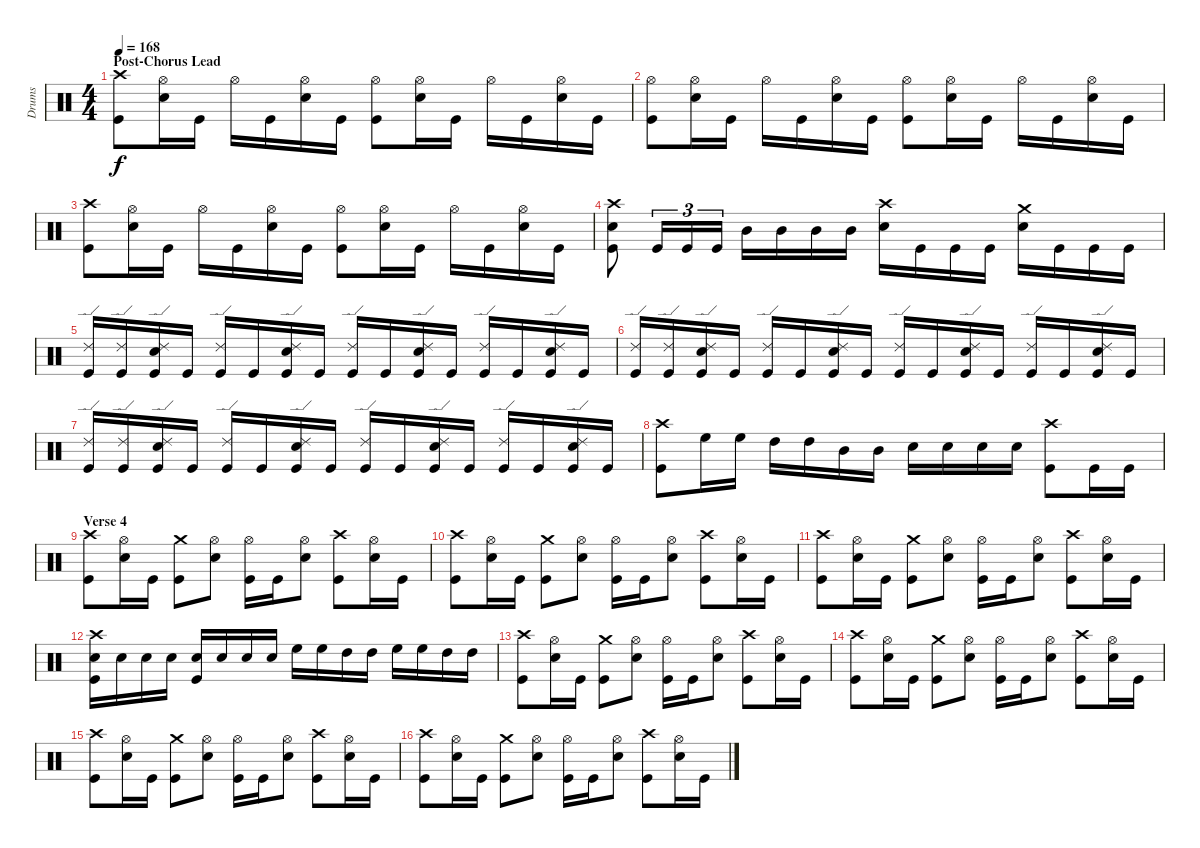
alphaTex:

\track ("Drums" "Drums") {instrument percussion}
\staff {score}
\articulation defaults
\ts (4 4)
\section ("" "Post-Chorus Lead")
\tempo 168
\clef neutral
\ks c
("Crash high (hit)" "Kick (hit)").8{dy f} ("Hi-Hat (open)" "Electric Snare (hit)").16 "Kick (hit)".16 "Hi-Hat (open)".16 "Kick (hit)".16 ("Hi-Hat (open)" "Electric Snare (hit)").16 "Kick (hit)".16 ("Hi-Hat (open)" "Kick (hit)").8 ("Hi-Hat (open)" "Electric Snare (hit)").16 "Kick (hit)".16 "Hi-Hat (open)".16 "Kick (hit)".16 ("Hi-Hat (open)" "Electric Snare (hit)").16 "Kick (hit)".16 |
("Hi-Hat (open)" "Kick (hit)").8 ("Hi-Hat (open)" "Electric Snare (hit)").16 "Kick (hit)".16 "Hi-Hat (open)".16 "Kick (hit)".16 ("Hi-Hat (open)" "Electric Snare (hit)").16 "Kick (hit)".16 ("Hi-Hat (open)" "Kick (hit)").8 ("Hi-Hat (open)" "Electric Snare (hit)").16 "Kick (hit)".16 "Hi-Hat (open)".16 "Kick (hit)".16 ("Hi-Hat (open)" "Electric Snare (hit)").16 "Kick (hit)".16 |
("Crash high (hit)" "Kick (hit)").8 ("Hi-Hat (open)" "Electric Snare (hit)").16 "Kick (hit)".16 "Hi-Hat (open)".16 "Kick (hit)".16 ("Hi-Hat (open)" "Electric Snare (hit)").16 "Kick (hit)".16 ("Hi-Hat (open)" "Kick (hit)").8 ("Hi-Hat (open)" "Electric Snare (hit)").16 "Kick (hit)".16 "Hi-Hat (open)".16 "Kick (hit)".16 ("Hi-Hat (open)" "Electric Snare (hit)").16 "Kick (hit)".16 |
("Crash high (hit)" "Electric Snare (hit)" "Kick (hit)").8 "Kick (hit)".16{tu (3 2)} "Kick (hit)".16{tu (3 2)} "Kick (hit)".16{tu (3 2)} "Mid Tom (hit)".16 "Mid Tom (hit)".16 "Mid Tom (hit)".16 "Mid Tom (hit)".16 ("Crash high (hit)" "Electric Snare (hit)").16 "Kick (hit)".16 "Kick (hit)".16 "Kick (hit)".16 ("Crash medium (hit)" "Electric Snare (hit)").16 "Kick (hit)".16 "Kick (hit)".16 "Kick (hit)".16 |
("Ride (edge) 2" "Kick (hit)").16 ("Ride (edge) 2" "Kick (hit)").16 ("Ride (edge) 2" "Electric Snare (hit)" "Kick (hit)").16 "Kick (hit)".16 ("Ride (edge) 2" "Kick (hit)").16 "Kick (hit)".16 ("Ride (edge) 2" "Electric Snare (hit)" "Kick (hit)").16 "Kick (hit)".16 ("Ride (edge) 2" "Kick (hit)").16 "Kick (hit)".16 ("Ride (edge) 2" "Electric Snare (hit)" "Kick (hit)").16 "Kick (hit)".16 ("Ride (edge) 2" "Kick (hit)").16 "Kick (hit)".16 ("Ride (edge) 2" "Electric Snare (hit)" "Kick (hit)").16 "Kick (hit)".16 |
("Ride (edge) 2" "Kick (hit)").16 ("Ride (edge) 2" "Kick (hit)").16 ("Ride (edge) 2" "Electric Snare (hit)" "Kick (hit)").16 "Kick (hit)".16 ("Ride (edge) 2" "Kick (hit)").16 "Kick (hit)".16 ("Ride (edge) 2" "Electric Snare (hit)" "Kick (hit)").16 "Kick (hit)".16 ("Ride (edge) 2" "Kick (hit)").16 "Kick (hit)".16 ("Ride (edge) 2" "Electric Snare (hit)" "Kick (hit)").16 "Kick (hit)".16 ("Ride (edge) 2" "Kick (hit)").16 "Kick (hit)".16 ("Ride (edge) 2" "Electric Snare (hit)" "Kick (hit)").16 "Kick (hit)".16 |
("Ride (edge) 2" "Kick (hit)").16 ("Ride (edge) 2" "Kick (hit)").16 ("Ride (edge) 2" "Electric Snare (hit)" "Kick (hit)").16 "Kick (hit)".16 ("Ride (edge) 2" "Kick (hit)").16 "Kick (hit)".16 ("Ride (edge) 2" "Electric Snare (hit)" "Kick (hit)").16 "Kick (hit)".16 ("Ride (edge) 2" "Kick (hit)").16 "Kick (hit)".16 ("Ride (edge) 2" "Electric Snare (hit)" "Kick (hit)").16 "Kick (hit)".16 ("Ride (edge) 2" "Kick (hit)").16 "Kick (hit)".16 ("Ride (edge) 2" "Electric Snare (hit)" "Kick (hit)").16 "Kick (hit)".16 |
("Crash high (hit)" "Kick (hit)").8 "High Floor Tom (hit)".16 "High Floor Tom (hit)".16 "High Tom (hit)".16 "High Tom (hit)".16 "Mid Tom (hit)".16 "Mid Tom (hit)".16 "Electric Snare (hit)".16 "Electric Snare (hit)".16 "Electric Snare (hit)".16 "Electric Snare (hit)".16 ("Crash high (hit)" "Kick (hit)").8 "Kick (hit)".16 "Kick (hit)".16 |
\section ("" "Verse 4")
("Crash high (hit)" "Kick (hit)").8 ("Hi-Hat (open)" "Electric Snare (hit)").16 "Kick (hit)".16 ("Crash medium (hit)" "Kick (hit)").8 ("Hi-Hat (open)" "Electric Snare (hit)").8 ("Hi-Hat (open)" "Kick (hit)").16 "Kick (hit)".16 ("Hi-Hat (open)" "Electric Snare (hit)").8 ("Crash high (hit)" "Kick (hit)").8 ("Hi-Hat (open)" "Electric Snare (hit)").16 "Kick (hit)".16 |
("Crash high (hit)" "Kick (hit)").8 ("Hi-Hat (open)" "Electric Snare (hit)").16 "Kick (hit)".16 ("Crash medium (hit)" "Kick (hit)").8 ("Hi-Hat (open)" "Electric Snare (hit)").8 ("Hi-Hat (open)" "Kick (hit)").16 "Kick (hit)".16 ("Hi-Hat (open)" "Electric Snare (hit)").8 ("Crash high (hit)" "Kick (hit)").8 ("Hi-Hat (open)" "Electric Snare (hit)").16 "Kick (hit)".16 |
("Crash high (hit)" "Kick (hit)").8 ("Hi-Hat (open)" "Electric Snare (hit)").16 "Kick (hit)".16 ("Crash medium (hit)" "Kick (hit)").8 ("Hi-Hat (open)" "Electric Snare (hit)").8 ("Hi-Hat (open)" "Kick (hit)").16 "Kick (hit)".16 ("Hi-Hat (open)" "Electric Snare (hit)").8 ("Crash high (hit)" "Kick (hit)").8 ("Hi-Hat (open)" "Electric Snare (hit)").16 "Kick (hit)".16 |
("Crash high (hit)" "Electric Snare (hit)" "Kick (hit)").16 "Electric Snare (hit)".16 "Electric Snare (hit)".16 "Electric Snare (hit)".16 ("Electric Snare (hit)" "Kick (hit)").16 "Electric Snare (hit)".16 "Electric Snare (hit)".16 "Electric Snare (hit)".16 "High Floor Tom (hit)".16 "High Floor Tom (hit)".16 "High Tom (hit)".16 "High Tom (hit)".16 "High Floor Tom (hit)".16 "High Floor Tom (hit)".16 "High Tom (hit)".16 "High Tom (hit)".16 |
("Crash high (hit)" "Kick (hit)").8 ("Hi-Hat (open)" "Electric Snare (hit)").16 "Kick (hit)".16 ("Crash medium (hit)" "Kick (hit)").8 ("Hi-Hat (open)" "Electric Snare (hit)").8 ("Hi-Hat (open)" "Kick (hit)").16 "Kick (hit)".16 ("Hi-Hat (open)" "Electric Snare (hit)").8 ("Crash high (hit)" "Kick (hit)").8 ("Hi-Hat (open)" "Electric Snare (hit)").16 "Kick (hit)".16 |
("Crash high (hit)" "Kick (hit)").8 ("Hi-Hat (open)" "Electric Snare (hit)").16 "Kick (hit)".16 ("Crash medium (hit)" "Kick (hit)").8 ("Hi-Hat (open)" "Electric Snare (hit)").8 ("Hi-Hat (open)" "Kick (hit)").16 "Kick (hit)".16 ("Hi-Hat (open)" "Electric Snare (hit)").8 ("Crash high (hit)" "Kick (hit)").8 ("Hi-Hat (open)" "Electric Snare (hit)").16 "Kick (hit)".16 |
("Crash high (hit)" "Kick (hit)").8 ("Hi-Hat (open)" "Electric Snare (hit)").16 "Kick (hit)".16 ("Crash medium (hit)" "Kick (hit)").8 ("Hi-Hat (open)" "Electric Snare (hit)").8 ("Hi-Hat (open)" "Kick (hit)").16 "Kick (hit)".16 ("Hi-Hat (open)" "Electric Snare (hit)").8 ("Crash high (hit)" "Kick (hit)").8 ("Hi-Hat (open)" "Electric Snare (hit)").16 "Kick (hit)".16 |
("Crash high (hit)" "Kick (hit)").8 ("Hi-Hat (open)" "Electric Snare (hit)").16 "Kick (hit)".16 ("Crash medium (hit)" "Kick (hit)").8 ("Hi-Hat (open)" "Electric Snare (hit)").8 ("Hi-Hat (open)" "Kick (hit)").16 "Kick (hit)".16 ("Hi-Hat (open)" "Electric Snare (hit)").8 ("Crash high (hit)" "Kick (hit)").8 ("Hi-Hat (open)" "Electric Snare (hit)").16 "Kick (hit)".16
